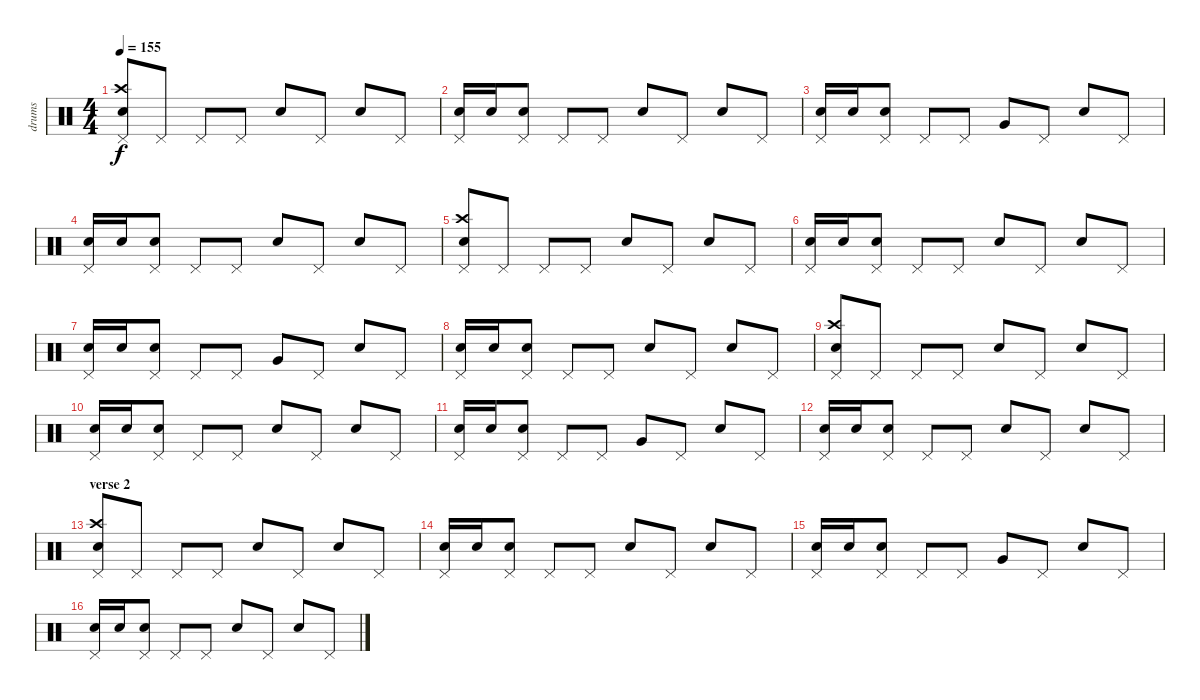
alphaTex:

\track ("drums" "drums") {instrument percussion}
\staff {score}
\articulation defaults
\ts (4 4)
\tempo 155
\clef neutral
\ks c
("Electric Snare (hit)" "Crash high (hit)" "Pedal Hi-Hat (hit)").8{dy f} "Pedal Hi-Hat (hit)".8 "Pedal Hi-Hat (hit)".8 "Pedal Hi-Hat (hit)".8 "Electric Snare (hit)".8 "Pedal Hi-Hat (hit)".8 "Electric Snare (hit)".8 "Pedal Hi-Hat (hit)".8 |
("Electric Snare (hit)" "Pedal Hi-Hat (hit)").16 "Electric Snare (hit)".16 ("Electric Snare (hit)" "Pedal Hi-Hat (hit)").8 "Pedal Hi-Hat (hit)".8 "Pedal Hi-Hat (hit)".8 "Electric Snare (hit)".8 "Pedal Hi-Hat (hit)".8 "Electric Snare (hit)".8 "Pedal Hi-Hat (hit)".8 |
("Electric Snare (hit)" "Pedal Hi-Hat (hit)").16 "Electric Snare (hit)".16 ("Electric Snare (hit)" "Pedal Hi-Hat (hit)").8 "Pedal Hi-Hat (hit)".8 "Pedal Hi-Hat (hit)".8 "Very Low Tom (hit)".8 "Pedal Hi-Hat (hit)".8 "Electric Snare (hit)".8 "Pedal Hi-Hat (hit)".8 |
("Electric Snare (hit)" "Pedal Hi-Hat (hit)").16 "Electric Snare (hit)".16 ("Electric Snare (hit)" "Pedal Hi-Hat (hit)").8 "Pedal Hi-Hat (hit)".8 "Pedal Hi-Hat (hit)".8 "Electric Snare (hit)".8 "Pedal Hi-Hat (hit)".8 "Electric Snare (hit)".8 "Pedal Hi-Hat (hit)".8 |
("Electric Snare (hit)" "Crash high (hit)" "Pedal Hi-Hat (hit)").8 "Pedal Hi-Hat (hit)".8 "Pedal Hi-Hat (hit)".8 "Pedal Hi-Hat (hit)".8 "Electric Snare (hit)".8 "Pedal Hi-Hat (hit)".8 "Electric Snare (hit)".8 "Pedal Hi-Hat (hit)".8 |
("Electric Snare (hit)" "Pedal Hi-Hat (hit)").16 "Electric Snare (hit)".16 ("Electric Snare (hit)" "Pedal Hi-Hat (hit)").8 "Pedal Hi-Hat (hit)".8 "Pedal Hi-Hat (hit)".8 "Electric Snare (hit)".8 "Pedal Hi-Hat (hit)".8 "Electric Snare (hit)".8 "Pedal Hi-Hat (hit)".8 |
("Electric Snare (hit)" "Pedal Hi-Hat (hit)").16 "Electric Snare (hit)".16 ("Electric Snare (hit)" "Pedal Hi-Hat (hit)").8 "Pedal Hi-Hat (hit)".8 "Pedal Hi-Hat (hit)".8 "Very Low Tom (hit)".8 "Pedal Hi-Hat (hit)".8 "Electric Snare (hit)".8 "Pedal Hi-Hat (hit)".8 |
("Electric Snare (hit)" "Pedal Hi-Hat (hit)").16 "Electric Snare (hit)".16 ("Electric Snare (hit)" "Pedal Hi-Hat (hit)").8 "Pedal Hi-Hat (hit)".8 "Pedal Hi-Hat (hit)".8 "Electric Snare (hit)".8 "Pedal Hi-Hat (hit)".8 "Electric Snare (hit)".8 "Pedal Hi-Hat (hit)".8 |
("Electric Snare (hit)" "Crash high (hit)" "Pedal Hi-Hat (hit)").8 "Pedal Hi-Hat (hit)".8 "Pedal Hi-Hat (hit)".8 "Pedal Hi-Hat (hit)".8 "Electric Snare (hit)".8 "Pedal Hi-Hat (hit)".8 "Electric Snare (hit)".8 "Pedal Hi-Hat (hit)".8 |
("Electric Snare (hit)" "Pedal Hi-Hat (hit)").16 "Electric Snare (hit)".16 ("Electric Snare (hit)" "Pedal Hi-Hat (hit)").8 "Pedal Hi-Hat (hit)".8 "Pedal Hi-Hat (hit)".8 "Electric Snare (hit)".8 "Pedal Hi-Hat (hit)".8 "Electric Snare (hit)".8 "Pedal Hi-Hat (hit)".8 |
("Electric Snare (hit)" "Pedal Hi-Hat (hit)").16 "Electric Snare (hit)".16 ("Electric Snare (hit)" "Pedal Hi-Hat (hit)").8 "Pedal Hi-Hat (hit)".8 "Pedal Hi-Hat (hit)".8 "Very Low Tom (hit)".8 "Pedal Hi-Hat (hit)".8 "Electric Snare (hit)".8 "Pedal Hi-Hat (hit)".8 |
("Electric Snare (hit)" "Pedal Hi-Hat (hit)").16 "Electric Snare (hit)".16 ("Electric Snare (hit)" "Pedal Hi-Hat (hit)").8 "Pedal Hi-Hat (hit)".8 "Pedal Hi-Hat (hit)".8 "Electric Snare (hit)".8 "Pedal Hi-Hat (hit)".8 "Electric Snare (hit)".8 "Pedal Hi-Hat (hit)".8 |
\section ("" "verse 2")
("Electric Snare (hit)" "Crash high (hit)" "Pedal Hi-Hat (hit)").8{volume 13} "Pedal Hi-Hat (hit)".8 "Pedal Hi-Hat (hit)".8 "Pedal Hi-Hat (hit)".8 "Electric Snare (hit)".8 "Pedal Hi-Hat (hit)".8 "Electric Snare (hit)".8 "Pedal Hi-Hat (hit)".8 |
("Electric Snare (hit)" "Pedal Hi-Hat (hit)").16 "Electric Snare (hit)".16 ("Electric Snare (hit)" "Pedal Hi-Hat (hit)").8 "Pedal Hi-Hat (hit)".8 "Pedal Hi-Hat (hit)".8 "Electric Snare (hit)".8 "Pedal Hi-Hat (hit)".8 "Electric Snare (hit)".8 "Pedal Hi-Hat (hit)".8 |
("Electric Snare (hit)" "Pedal Hi-Hat (hit)").16 "Electric Snare (hit)".16 ("Electric Snare (hit)" "Pedal Hi-Hat (hit)").8 "Pedal Hi-Hat (hit)".8 "Pedal Hi-Hat (hit)".8 "Very Low Tom (hit)".8 "Pedal Hi-Hat (hit)".8 "Electric Snare (hit)".8 "Pedal Hi-Hat (hit)".8 |
("Electric Snare (hit)" "Pedal Hi-Hat (hit)").16 "Electric Snare (hit)".16 ("Electric Snare (hit)" "Pedal Hi-Hat (hit)").8 "Pedal Hi-Hat (hit)".8 "Pedal Hi-Hat (hit)".8 "Electric Snare (hit)".8 "Pedal Hi-Hat (hit)".8 "Electric Snare (hit)".8 "Pedal Hi-Hat (hit)".8
